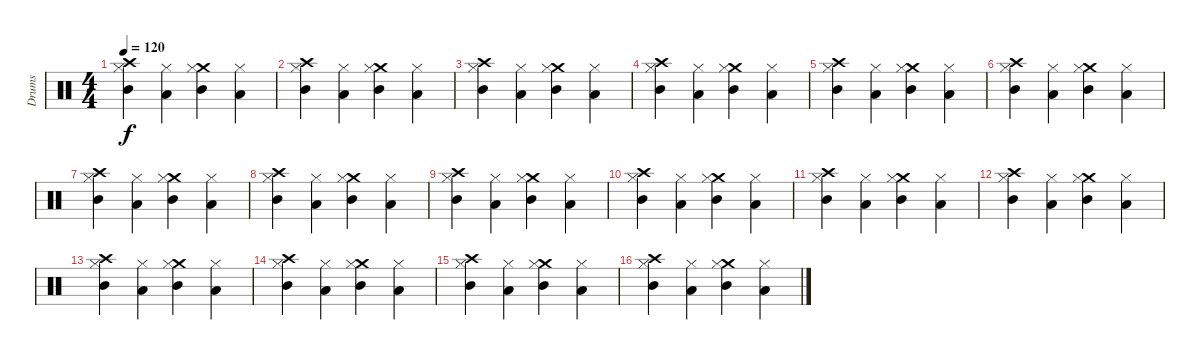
\track ("Drums" "Drums") {instrument percussion}
\staff {score}
\articulation defaults
\ts (4 4)
\tempo 120
\clef neutral
\ks c
("Crash high (hit)" "Hi-Hat (closed)" "Mid Tom (hit)").4{dy f} ("Hi-Hat (closed)" "Low Tom (hit)").4 ("Crash medium (hit)" "Hi-Hat (closed)" "Mid Tom (hit)").4 ("Hi-Hat (closed)" "Low Tom (hit)").4 |
("Crash high (hit)" "Hi-Hat (closed)" "Mid Tom (hit)").4 ("Hi-Hat (closed)" "Low Tom (hit)").4 ("Crash medium (hit)" "Hi-Hat (closed)" "Mid Tom (hit)").4 ("Hi-Hat (closed)" "Low Tom (hit)").4 |
("Crash high (hit)" "Hi-Hat (closed)" "Mid Tom (hit)").4 ("Hi-Hat (closed)" "Low Tom (hit)").4 ("Crash medium (hit)" "Hi-Hat (closed)" "Mid Tom (hit)").4 ("Hi-Hat (closed)" "Low Tom (hit)").4 |
("Crash high (hit)" "Hi-Hat (closed)" "Mid Tom (hit)").4 ("Hi-Hat (closed)" "Low Tom (hit)").4 ("Crash medium (hit)" "Hi-Hat (closed)" "Mid Tom (hit)").4 ("Hi-Hat (closed)" "Low Tom (hit)").4 |
("Crash high (hit)" "Hi-Hat (closed)" "Mid Tom (hit)").4 ("Hi-Hat (closed)" "Low Tom (hit)").4 ("Crash medium (hit)" "Hi-Hat (closed)" "Mid Tom (hit)").4 ("Hi-Hat (closed)" "Low Tom (hit)").4 |
("Crash high (hit)" "Hi-Hat (closed)" "Mid Tom (hit)").4 ("Hi-Hat (closed)" "Low Tom (hit)").4 ("Crash medium (hit)" "Hi-Hat (closed)" "Mid Tom (hit)").4 ("Hi-Hat (closed)" "Low Tom (hit)").4 |
("Crash high (hit)" "Hi-Hat (closed)" "Mid Tom (hit)").4 ("Hi-Hat (closed)" "Low Tom (hit)").4 ("Crash medium (hit)" "Hi-Hat (closed)" "Mid Tom (hit)").4 ("Hi-Hat (closed)" "Low Tom (hit)").4 |
("Crash high (hit)" "Hi-Hat (closed)" "Mid Tom (hit)").4 ("Hi-Hat (closed)" "Low Tom (hit)").4 ("Crash medium (hit)" "Hi-Hat (closed)" "Mid Tom (hit)").4 ("Hi-Hat (closed)" "Low Tom (hit)").4 |
("Crash high (hit)" "Hi-Hat (closed)" "Mid Tom (hit)").4 ("Hi-Hat (closed)" "Low Tom (hit)").4 ("Crash medium (hit)" "Hi-Hat (closed)" "Mid Tom (hit)").4 ("Hi-Hat (closed)" "Low Tom (hit)").4 |
("Crash high (hit)" "Hi-Hat (closed)" "Mid Tom (hit)").4 ("Hi-Hat (closed)" "Low Tom (hit)").4 ("Crash medium (hit)" "Hi-Hat (closed)" "Mid Tom (hit)").4 ("Hi-Hat (closed)" "Low Tom (hit)").4 |
("Crash high (hit)" "Hi-Hat (closed)" "Mid Tom (hit)").4 ("Hi-Hat (closed)" "Low Tom (hit)").4 ("Crash medium (hit)" "Hi-Hat (closed)" "Mid Tom (hit)").4 ("Hi-Hat (closed)" "Low Tom (hit)").4 |
("Crash high (hit)" "Hi-Hat (closed)" "Mid Tom (hit)").4 ("Hi-Hat (closed)" "Low Tom (hit)").4 ("Crash medium (hit)" "Hi-Hat (closed)" "Mid Tom (hit)").4 ("Hi-Hat (closed)" "Low Tom (hit)").4 |
("Crash high (hit)" "Hi-Hat (closed)" "Mid Tom (hit)").4 ("Hi-Hat (closed)" "Low Tom (hit)").4 ("Crash medium (hit)" "Hi-Hat (closed)" "Mid Tom (hit)").4 ("Hi-Hat (closed)" "Low Tom (hit)").4 |
("Crash high (hit)" "Hi-Hat (closed)" "Mid Tom (hit)").4 ("Hi-Hat (closed)" "Low Tom (hit)").4 ("Crash medium (hit)" "Hi-Hat (closed)" "Mid Tom (hit)").4 ("Hi-Hat (closed)" "Low Tom (hit)").4 |
("Crash high (hit)" "Hi-Hat (closed)" "Mid Tom (hit)").4 ("Hi-Hat (closed)" "Low Tom (hit)").4 ("Crash medium (hit)" "Hi-Hat (closed)" "Mid Tom (hit)").4 ("Hi-Hat (closed)" "Low Tom (hit)").4 |
("Crash high (hit)" "Hi-Hat (closed)" "Mid Tom (hit)").4 ("Hi-Hat (closed)" "Low Tom (hit)").4 ("Crash medium (hit)" "Hi-Hat (closed)" "Mid Tom (hit)").4 ("Hi-Hat (closed)" "Low Tom (hit)").4
